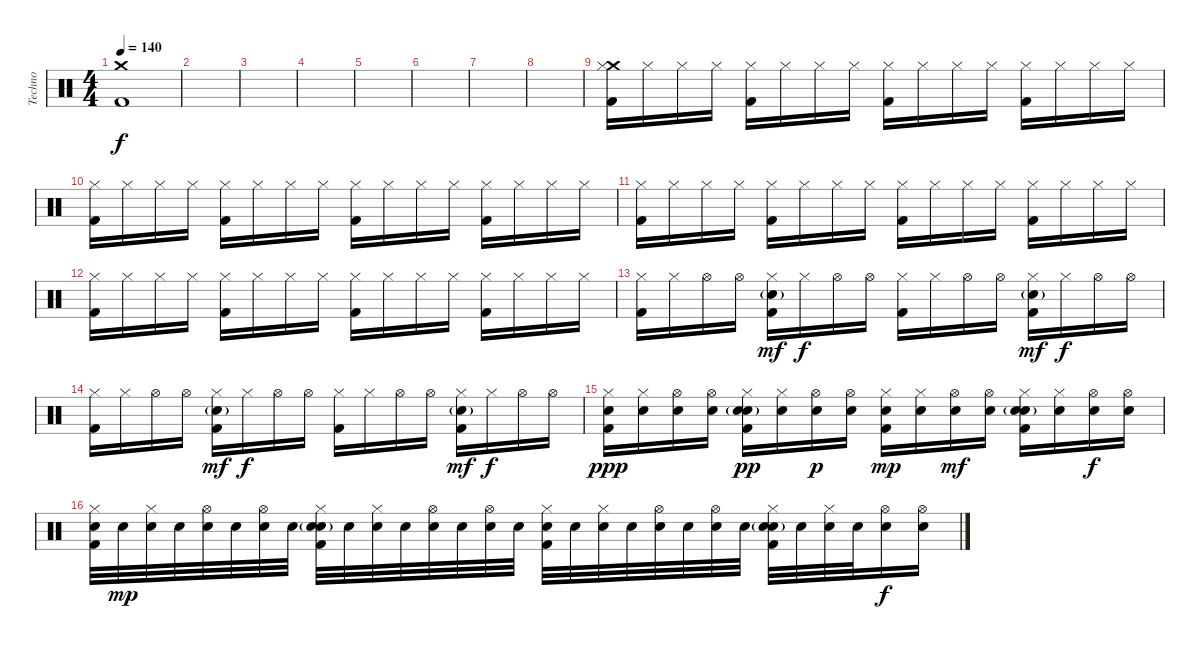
\track ("Techno" "Techno") {instrument percussion}
\staff {score}
\articulation defaults
\ts (4 4)
\tempo 140
\clef neutral
\ks c
("Crash medium (hit)" "Kick (hit) 2").1{dy f} |
|
|
|
|
|
|
|
("Crash medium (hit)" "Hi-Hat (closed)" "Kick (hit) 2").16 "Hi-Hat (closed)".16 "Hi-Hat (closed)".16 "Hi-Hat (closed)".16 ("Hi-Hat (closed)" "Kick (hit) 2").16 "Hi-Hat (closed)".16 "Hi-Hat (closed)".16 "Hi-Hat (closed)".16 ("Hi-Hat (closed)" "Kick (hit) 2").16 "Hi-Hat (closed)".16 "Hi-Hat (closed)".16 "Hi-Hat (closed)".16 ("Hi-Hat (closed)" "Kick (hit) 2").16 "Hi-Hat (closed)".16 "Hi-Hat (closed)".16 "Hi-Hat (closed)".16 |
("Hi-Hat (closed)" "Kick (hit) 2").16 "Hi-Hat (closed)".16 "Hi-Hat (closed)".16 "Hi-Hat (closed)".16 ("Hi-Hat (closed)" "Kick (hit) 2").16 "Hi-Hat (closed)".16 "Hi-Hat (closed)".16 "Hi-Hat (closed)".16 ("Hi-Hat (closed)" "Kick (hit) 2").16 "Hi-Hat (closed)".16 "Hi-Hat (closed)".16 "Hi-Hat (closed)".16 ("Hi-Hat (closed)" "Kick (hit) 2").16 "Hi-Hat (closed)".16 "Hi-Hat (closed)".16 "Hi-Hat (closed)".16 |
("Hi-Hat (closed)" "Kick (hit) 2").16 "Hi-Hat (closed)".16 "Hi-Hat (closed)".16 "Hi-Hat (closed)".16 ("Hi-Hat (closed)" "Kick (hit) 2").16 "Hi-Hat (closed)".16 "Hi-Hat (closed)".16 "Hi-Hat (closed)".16 ("Hi-Hat (closed)" "Kick (hit) 2").16 "Hi-Hat (closed)".16 "Hi-Hat (closed)".16 "Hi-Hat (closed)".16 ("Hi-Hat (closed)" "Kick (hit) 2").16 "Hi-Hat (closed)".16 "Hi-Hat (closed)".16 "Hi-Hat (closed)".16 |
("Hi-Hat (closed)" "Kick (hit) 2").16 "Hi-Hat (closed)".16 "Hi-Hat (closed)".16 "Hi-Hat (closed)".16 ("Hi-Hat (closed)" "Kick (hit) 2").16 "Hi-Hat (closed)".16 "Hi-Hat (closed)".16 "Hi-Hat (closed)".16 ("Hi-Hat (closed)" "Kick (hit) 2").16 "Hi-Hat (closed)".16 "Hi-Hat (closed)".16 "Hi-Hat (closed)".16 ("Hi-Hat (closed)" "Kick (hit) 2").16 "Hi-Hat (closed)".16 "Hi-Hat (closed)".16 "Hi-Hat (closed)".16 |
("Hi-Hat (closed)" "Kick (hit) 2").16 "Hi-Hat (closed)".16 "Hi-Hat (open)".16 "Hi-Hat (open)".16 ("Hi-Hat (closed)" "Snare (hit) 2"{g} "Kick (hit) 2").16{dy mf} "Hi-Hat (closed)".16{dy f} "Hi-Hat (open)".16 "Hi-Hat (open)".16 ("Hi-Hat (closed)" "Kick (hit) 2").16 "Hi-Hat (closed)".16 "Hi-Hat (open)".16 "Hi-Hat (open)".16 ("Hi-Hat (closed)" "Snare (hit) 2"{g} "Kick (hit) 2").16{dy mf} "Hi-Hat (closed)".16{dy f} "Hi-Hat (open)".16 "Hi-Hat (open)".16 |
("Hi-Hat (closed)" "Kick (hit) 2").16 "Hi-Hat (closed)".16 "Hi-Hat (open)".16 "Hi-Hat (open)".16 ("Hi-Hat (closed)" "Snare (hit) 2"{g} "Kick (hit) 2").16{dy mf} "Hi-Hat (closed)".16{dy f} "Hi-Hat (open)".16 "Hi-Hat (open)".16 ("Hi-Hat (closed)" "Kick (hit) 2").16 "Hi-Hat (closed)".16 "Hi-Hat (open)".16 "Hi-Hat (open)".16 ("Hi-Hat (closed)" "Snare (hit) 2"{g} "Kick (hit) 2").16{dy mf} "Hi-Hat (closed)".16{dy f} "Hi-Hat (open)".16 "Hi-Hat (open)".16 |
("Hi-Hat (closed)" "Electric Snare (hit)" "Kick (hit) 2").16{dy ppp} ("Hi-Hat (closed)" "Electric Snare (hit)").16 ("Hi-Hat (open)" "Electric Snare (hit)").16 ("Hi-Hat (open)" "Electric Snare (hit)").16 ("Snare (hit) 2"{g} "Hi-Hat (closed)" "Electric Snare (hit)" "Kick (hit) 2").16{dy pp} ("Hi-Hat (closed)" "Electric Snare (hit)").16 ("Hi-Hat (open)" "Electric Snare (hit)").16{dy p} ("Hi-Hat (open)" "Electric Snare (hit)").16 ("Hi-Hat (closed)" "Electric Snare (hit)" "Kick (hit) 2").16{dy mp} ("Hi-Hat (closed)" "Electric Snare (hit)").16 ("Hi-Hat (open)" "Electric Snare (hit)").16{dy mf} ("Hi-Hat (open)" "Electric Snare (hit)").16 ("Snare (hit) 2"{g} "Hi-Hat (closed)" "Electric Snare (hit)" "Kick (hit) 2").16 ("Hi-Hat (closed)" "Electric Snare (hit)").16 ("Hi-Hat (open)" "Electric Snare (hit)").16{dy f} ("Hi-Hat (open)" "Electric Snare (hit)").16 |
("Hi-Hat (closed)" "Electric Snare (hit)" "Kick (hit) 2").32 "Electric Snare (hit)".32{dy mp} ("Hi-Hat (closed)" "Electric Snare (hit)").32 "Electric Snare (hit)".32 ("Hi-Hat (open)" "Electric Snare (hit)").32 "Electric Snare (hit)".32 ("Hi-Hat (open)" "Electric Snare (hit)").32 "Electric Snare (hit)".32 ("Snare (hit) 2"{g} "Hi-Hat (closed)" "Electric Snare (hit)" "Kick (hit) 2").32 "Electric Snare (hit)".32 ("Hi-Hat (closed)" "Electric Snare (hit)").32 "Electric Snare (hit)".32 ("Hi-Hat (open)" "Electric Snare (hit)").32 "Electric Snare (hit)".32 ("Hi-Hat (open)" "Electric Snare (hit)").32 "Electric Snare (hit)".32 ("Hi-Hat (closed)" "Electric Snare (hit)" "Kick (hit) 2").32 "Electric Snare (hit)".32 ("Hi-Hat (closed)" "Electric Snare (hit)").32 "Electric Snare (hit)".32 ("Hi-Hat (open)" "Electric Snare (hit)").32 "Electric Snare (hit)".32 ("Hi-Hat (open)" "Electric Snare (hit)").32 "Electric Snare (hit)".32 ("Snare (hit) 2"{g} "Hi-Hat (closed)" "Electric Snare (hit)" "Kick (hit) 2").32 "Electric Snare (hit)".32 ("Hi-Hat (closed)" "Electric Snare (hit)").32 "Electric Snare (hit)".32 ("Hi-Hat (open)" "Electric Snare (hit)").16{dy f} ("Hi-Hat (open)" "Electric Snare (hit)").16
